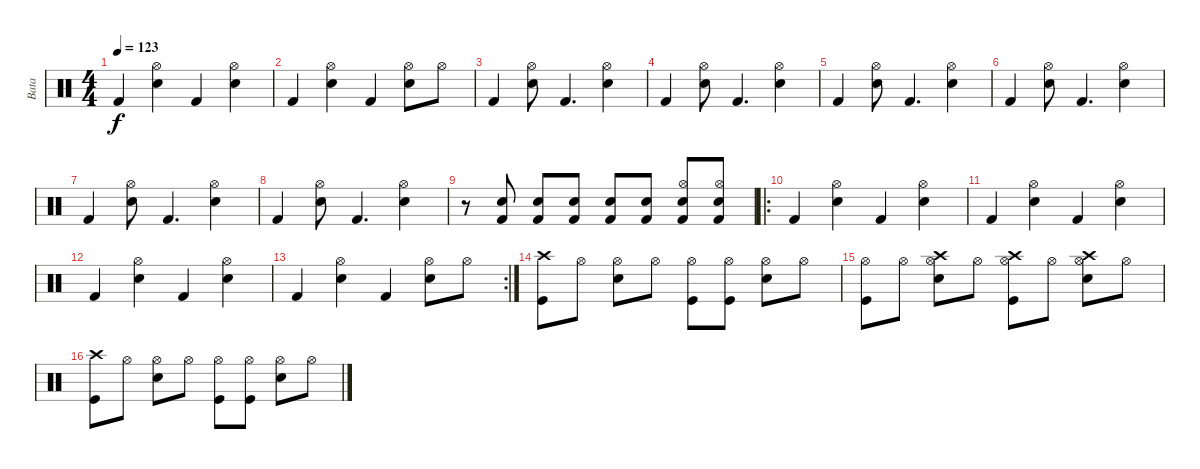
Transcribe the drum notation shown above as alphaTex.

\track ("Bata" "Bata") {instrument percussion}
\staff {score}
\articulation defaults
\ts (4 4)
\tempo 123
\clef neutral
\ks c "Kick (hit) 2".4{dy f}
("Hi-Hat (open)" "Snare (hit) 2").4 "Kick (hit) 2".4 ("Hi-Hat (open)" "Snare (hit) 2").4 |
"Kick (hit) 2".4 ("Hi-Hat (open)" "Snare (hit) 2").4 "Kick (hit) 2".4 ("Hi-Hat (open)" "Snare (hit) 2").8 "Hi-Hat (open)".8 |
"Kick (hit) 2".4 ("Hi-Hat (open)" "Snare (hit) 2").8 "Kick (hit) 2".4{d} ("Hi-Hat (open)" "Snare (hit) 2").4 |
"Kick (hit) 2".4 ("Hi-Hat (open)" "Snare (hit) 2").8 "Kick (hit) 2".4{d} ("Hi-Hat (open)" "Snare (hit) 2").4 |
"Kick (hit) 2".4 ("Hi-Hat (open)" "Snare (hit) 2").8 "Kick (hit) 2".4{d} ("Hi-Hat (open)" "Snare (hit) 2").4 |
"Kick (hit) 2".4 ("Hi-Hat (open)" "Snare (hit) 2").8 "Kick (hit) 2".4{d} ("Hi-Hat (open)" "Snare (hit) 2").4 |
"Kick (hit) 2".4 ("Hi-Hat (open)" "Snare (hit) 2").8 "Kick (hit) 2".4{d} ("Hi-Hat (open)" "Snare (hit) 2").4 |
"Kick (hit) 2".4 ("Hi-Hat (open)" "Snare (hit) 2").8 "Kick (hit) 2".4{d} ("Hi-Hat (open)" "Snare (hit) 2").4 |
r.8 ("Snare (hit) 2" "Kick (hit) 2").8 ("Snare (hit) 2" "Kick (hit) 2").8 ("Snare (hit) 2" "Kick (hit) 2").8 ("Snare (hit) 2" "Kick (hit) 2").8 ("Snare (hit) 2" "Kick (hit) 2").8 ("Snare (hit) 2" "Kick (hit) 2" "Hi-Hat (open)").8 ("Snare (hit) 2" "Kick (hit) 2" "Hi-Hat (open)").8 |
\ro "Kick (hit) 2".4
("Hi-Hat (open)" "Snare (hit) 2").4 "Kick (hit) 2".4 ("Hi-Hat (open)" "Snare (hit) 2").4 |
"Kick (hit) 2".4 ("Hi-Hat (open)" "Snare (hit) 2").4 "Kick (hit) 2".4 ("Hi-Hat (open)" "Snare (hit) 2").4 |
"Kick (hit) 2".4 ("Hi-Hat (open)" "Snare (hit) 2").4 "Kick (hit) 2".4 ("Hi-Hat (open)" "Snare (hit) 2").4 |
\rc 2 "Kick (hit) 2".4
("Hi-Hat (open)" "Snare (hit) 2").4 "Kick (hit) 2".4 ("Hi-Hat (open)" "Snare (hit) 2").8 "Hi-Hat (open)".8 |
("Crash high (hit)" "Kick (hit)").8 "Hi-Hat (open)".8 ("Hi-Hat (open)" "Snare (hit) 2").8 "Hi-Hat (open)".8 ("Hi-Hat (open)" "Kick (hit)").8 ("Hi-Hat (open)" "Kick (hit)").8 ("Hi-Hat (open)" "Snare (hit) 2").8 "Hi-Hat (open)".8 |
("Hi-Hat (open)" "Kick (hit)").8 "Hi-Hat (open)".8 ("Hi-Hat (open)" "Snare (hit) 2" "Crash high (hit)").8 "Hi-Hat (open)".8 ("Hi-Hat (open)" "Kick (hit)" "Crash high (hit)").8 "Hi-Hat (open)".8 ("Hi-Hat (open)" "Snare (hit) 2" "Crash high (hit)").8 "Hi-Hat (open)".8 |
("Crash high (hit)" "Kick (hit)").8 "Hi-Hat (open)".8 ("Hi-Hat (open)" "Snare (hit) 2").8 "Hi-Hat (open)".8 ("Hi-Hat (open)" "Kick (hit)").8 ("Hi-Hat (open)" "Kick (hit)").8 ("Hi-Hat (open)" "Snare (hit) 2").8 "Hi-Hat (open)".8
